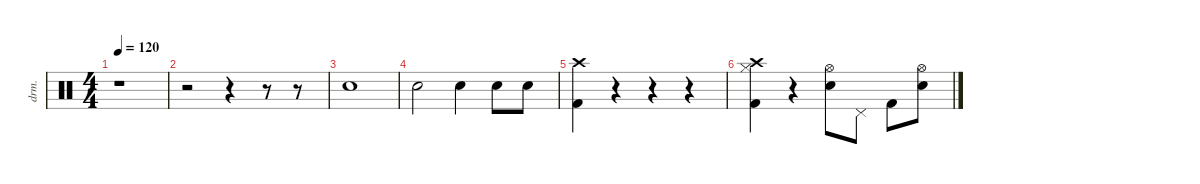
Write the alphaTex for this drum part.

\defaultSystemsLayout 4
\hideDynamics
\bracketExtendMode nobrackets
\otherSystemsTrackNameOrientation horizontal
\track ("Drumkit" "drm.") {instrument percussion}
\staff {score}
\articulation defaults
\ts (4 4)
\tempo 120
\clef neutral
\ks c
r.1{dy mf beam Down} |
r.2{beam Down} r.4{beam Down} r.8{beam Down} r.8{beam Down} |
"Snare (hit) 2".1{beam Down} |
"Snare (hit) 2".2{beam Down} "Snare (hit) 2".4{beam Down} "Snare (hit) 2".8{beam Down} "Snare (hit) 2".8{beam Down} |
("Crash high (hit)" "Kick (hit) 2").4{beam Down} r.4{beam Down} r.4{beam Down} r.4{beam Down} |
("Crash high (hit)" "Kick (hit) 2" "Hi-Hat (closed)").4{beam Down} r.4{beam Down} ("Hi-Hat (open)" "Snare (hit) 2").8{beam Down} "Pedal Hi-Hat (hit)".8{beam Down} "Kick (hit) 2".8{beam Down} ("Snare (hit) 2" "Hi-Hat (open)").8{beam Down}
